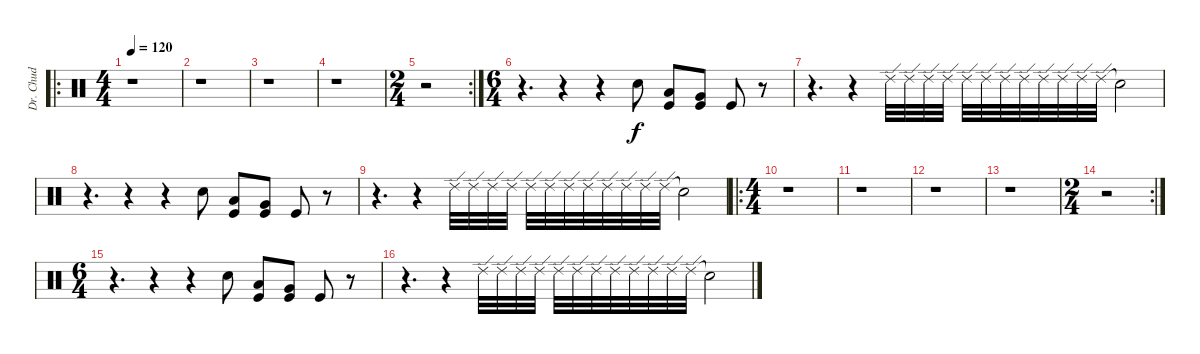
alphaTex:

\track ("Dr. Chud" "Dr. Chud") {instrument percussion}
\staff {score}
\articulation defaults
\ro
\ts (4 4)
\tempo 120
\clef neutral
\ks c
r.1{dy f} |
r.1 |
r.1 |
r.1 |
\rc 2
\ts (2 4)
r.2 |
\ts (6 4)
r.4{d} r.4 r.4 "Snare (hit) 2".8 ("Low Tom (hit)" "Kick (hit)").8 ("Very Low Tom (hit)" "Kick (hit)").8 "Kick (hit)".8 r.8 |
r.4{d} r.4 "Ride (edge) 2".32 "Ride (edge) 2".32 "Ride (edge) 2".32 "Ride (edge) 2".32 "Ride (edge) 2".32 "Ride (edge) 2".32 "Ride (edge) 2".32 "Ride (edge) 2".32 "Ride (edge) 2".32 "Ride (edge) 2".32 "Ride (edge) 2".32 "Ride (edge) 2".32 "Snare (hit)"{t}.2 |
r.4{d} r.4 r.4 "Snare (hit) 2".8 ("Low Tom (hit)" "Kick (hit)").8 ("Very Low Tom (hit)" "Kick (hit)").8 "Kick (hit)".8 r.8 |
r.4{d} r.4 "Ride (edge) 2".32 "Ride (edge) 2".32 "Ride (edge) 2".32 "Ride (edge) 2".32 "Ride (edge) 2".32 "Ride (edge) 2".32 "Ride (edge) 2".32 "Ride (edge) 2".32 "Ride (edge) 2".32 "Ride (edge) 2".32 "Ride (edge) 2".32 "Ride (edge) 2".32 "Snare (hit)"{t}.2 |
\ro
\ts (4 4)
r.1 |
r.1 |
r.1 |
r.1 |
\rc 2
\ts (2 4)
r.2 |
\ts (6 4)
r.4{d} r.4 r.4 "Snare (hit) 2".8 ("Low Tom (hit)" "Kick (hit)").8 ("Very Low Tom (hit)" "Kick (hit)").8 "Kick (hit)".8 r.8 |
r.4{d} r.4 "Ride (edge) 2".32 "Ride (edge) 2".32 "Ride (edge) 2".32 "Ride (edge) 2".32 "Ride (edge) 2".32 "Ride (edge) 2".32 "Ride (edge) 2".32 "Ride (edge) 2".32 "Ride (edge) 2".32 "Ride (edge) 2".32 "Ride (edge) 2".32 "Ride (edge) 2".32 "Snare (hit)"{t}.2
